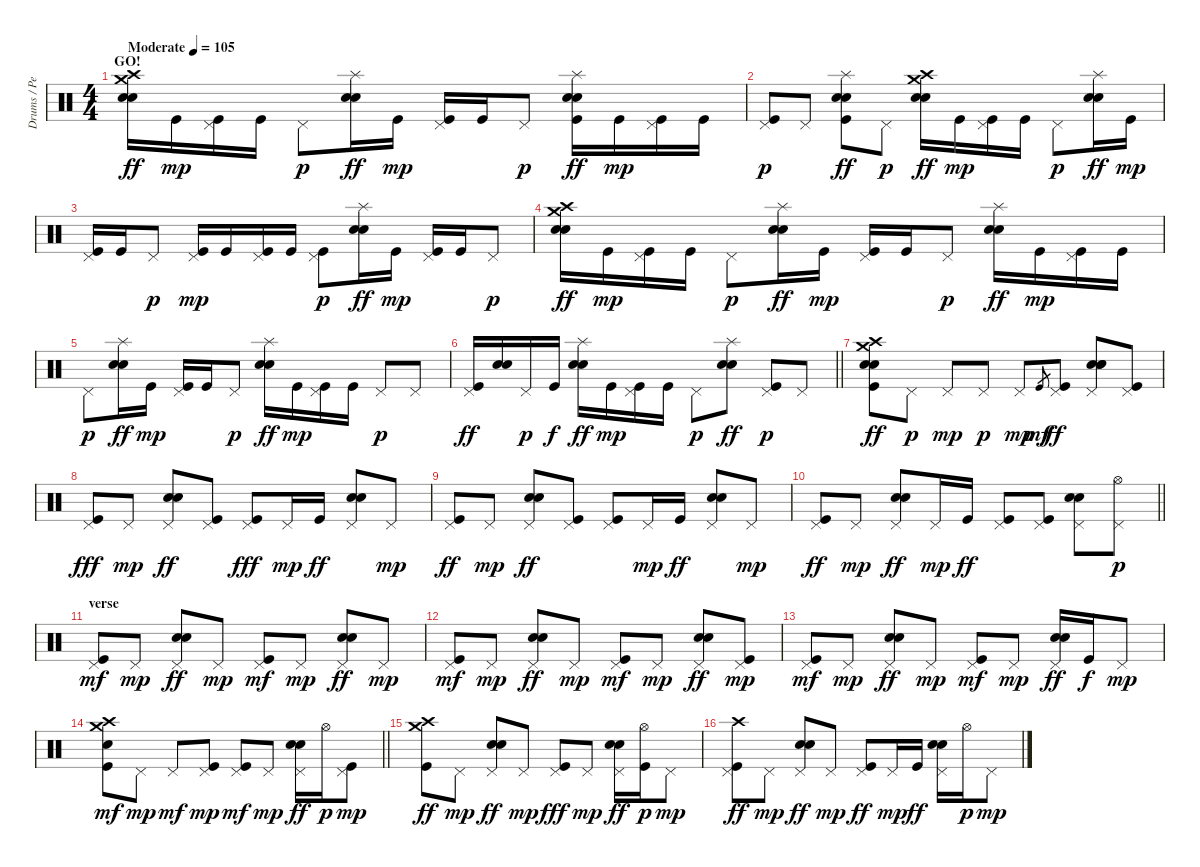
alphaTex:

\track ("Drums / Percussion" "Drums / Pe") {instrument percussion}
\staff {score}
\articulation defaults
\ts (4 4)
\section ("" "GO!")
\tempo (105 "Moderate")
\clef neutral
\ks c
("Crash high (hit)" "Crash medium (hit)" "Electric Snare (hit)" "Snare (hit) 2").16{dy ff} "Kick (hit)".16{dy mp} ("Pedal Hi-Hat (hit)" "Kick (hit)").16 "Kick (hit)".16 "Pedal Hi-Hat (hit)".8{dy p} ("Splash (hit)" "Electric Snare (hit)" "Snare (hit) 2").16{dy ff} "Kick (hit)".16{dy mp} ("Pedal Hi-Hat (hit)" "Kick (hit)").16 "Kick (hit)".16 "Pedal Hi-Hat (hit)".8{dy p} ("Splash (hit)" "Electric Snare (hit)" "Snare (hit) 2" "Kick (hit)").16{dy ff} "Kick (hit)".16{dy mp} ("Pedal Hi-Hat (hit)" "Kick (hit)").16 "Kick (hit)".16 |
("Pedal Hi-Hat (hit)" "Kick (hit)").8{dy p} "Pedal Hi-Hat (hit)".8 ("Splash (hit)" "Electric Snare (hit)" "Snare (hit) 2" "Kick (hit)").8{dy ff} "Pedal Hi-Hat (hit)".8{dy p} ("Crash medium (hit)" "Crash high (hit)" "Electric Snare (hit)" "Snare (hit) 2").16{dy ff} "Kick (hit)".16{dy mp} ("Pedal Hi-Hat (hit)" "Kick (hit)").16 "Kick (hit)".16 "Pedal Hi-Hat (hit)".8{dy p} ("Splash (hit)" "Electric Snare (hit)" "Snare (hit) 2").16{dy ff} "Kick (hit)".16{dy mp} |
("Pedal Hi-Hat (hit)" "Kick (hit)").16 "Kick (hit)".16 "Pedal Hi-Hat (hit)".8{dy p} ("Pedal Hi-Hat (hit)" "Kick (hit)").16{dy mp} "Kick (hit)".16 ("Pedal Hi-Hat (hit)" "Kick (hit)").16 "Kick (hit)".16 ("Pedal Hi-Hat (hit)" "Kick (hit)").8{dy p} ("Splash (hit)" "Electric Snare (hit)" "Snare (hit) 2").16{dy ff} "Kick (hit)".16{dy mp} ("Pedal Hi-Hat (hit)" "Kick (hit)").16 "Kick (hit)".16 "Pedal Hi-Hat (hit)".8{dy p} |
("Crash high (hit)" "Crash medium (hit)" "Electric Snare (hit)" "Snare (hit) 2").16{dy ff} "Kick (hit)".16{dy mp} ("Pedal Hi-Hat (hit)" "Kick (hit)").16 "Kick (hit)".16 "Pedal Hi-Hat (hit)".8{dy p} ("Splash (hit)" "Electric Snare (hit)" "Snare (hit) 2").16{dy ff} "Kick (hit)".16{dy mp} ("Pedal Hi-Hat (hit)" "Kick (hit)").16 "Kick (hit)".16 "Pedal Hi-Hat (hit)".8{dy p} ("Splash (hit)" "Electric Snare (hit)" "Snare (hit) 2").16{dy ff} "Kick (hit)".16{dy mp} ("Pedal Hi-Hat (hit)" "Kick (hit)").16 "Kick (hit)".16 |
"Pedal Hi-Hat (hit)".8{dy p} ("Splash (hit)" "Electric Snare (hit)" "Snare (hit) 2").16{dy ff} "Kick (hit)".16{dy mp} ("Pedal Hi-Hat (hit)" "Kick (hit)").16 "Kick (hit)".16 "Pedal Hi-Hat (hit)".8{dy p} ("Splash (hit)" "Electric Snare (hit)" "Snare (hit) 2").16{dy ff} "Kick (hit)".16{dy mp} ("Pedal Hi-Hat (hit)" "Kick (hit)").16 "Kick (hit)".16 "Pedal Hi-Hat (hit)".8{dy p} "Pedal Hi-Hat (hit)".8 |
\barLineRight lightlight
("Pedal Hi-Hat (hit)" "Kick (hit)").16{dy ff} ("Electric Snare (hit)" "Snare (hit) 2").16 "Pedal Hi-Hat (hit)".16{dy p} "Kick (hit)".16{dy f} ("Splash (hit)" "Electric Snare (hit)" "Snare (hit) 2").16{dy ff} "Kick (hit)".16{dy mp} ("Pedal Hi-Hat (hit)" "Kick (hit)").16 "Kick (hit)".16 "Pedal Hi-Hat (hit)".8{dy p} ("Splash (hit)" "Electric Snare (hit)" "Snare (hit) 2").8{dy ff} ("Pedal Hi-Hat (hit)" "Kick (hit)").8{dy p} "Pedal Hi-Hat (hit)".8 |
\section ("" "")
("Crash high (hit)" "Crash medium (hit)" "Electric Snare (hit)" "Snare (hit) 2" "Kick (hit)").8{dy ff} "Pedal Hi-Hat (hit)".8{dy p} "Pedal Hi-Hat (hit)".8{dy mp} "Pedal Hi-Hat (hit)".8{dy p} "Pedal Hi-Hat (hit)".8{dy mp} "Kick (hit)".8{gr dy mf} ("Pedal Hi-Hat (hit)" "Kick (hit)").8{dy ff} ("Pedal Hi-Hat (hit)" "Electric Snare (hit)" "Snare (hit) 2" "Electric Snare (hit)").8 ("Pedal Hi-Hat (hit)" "Kick (hit)").8 |
("Pedal Hi-Hat (hit)" "Kick (hit)").8{dy fff} "Pedal Hi-Hat (hit)".8{dy mp} ("Pedal Hi-Hat (hit)" "Electric Snare (hit)" "Snare (hit) 2").8{dy ff} ("Pedal Hi-Hat (hit)" "Kick (hit)").8 ("Pedal Hi-Hat (hit)" "Kick (hit)").8{dy fff} "Pedal Hi-Hat (hit)".16{dy mp} "Kick (hit)".16{dy ff} ("Pedal Hi-Hat (hit)" "Electric Snare (hit)" "Snare (hit) 2").8 "Pedal Hi-Hat (hit)".8{dy mp} |
("Pedal Hi-Hat (hit)" "Kick (hit)").8{dy ff} "Pedal Hi-Hat (hit)".8{dy mp} ("Pedal Hi-Hat (hit)" "Electric Snare (hit)" "Snare (hit) 2").8{dy ff} ("Pedal Hi-Hat (hit)" "Kick (hit)").8 ("Pedal Hi-Hat (hit)" "Kick (hit)").8 "Pedal Hi-Hat (hit)".16{dy mp} "Kick (hit)".16{dy ff} ("Pedal Hi-Hat (hit)" "Electric Snare (hit)" "Snare (hit) 2").8 "Pedal Hi-Hat (hit)".8{dy mp} |
\barLineRight lightlight
("Pedal Hi-Hat (hit)" "Kick (hit)").8{dy ff} "Pedal Hi-Hat (hit)".8{dy mp} ("Pedal Hi-Hat (hit)" "Electric Snare (hit)" "Snare (hit) 2").8{dy ff} "Pedal Hi-Hat (hit)".16{dy mp} "Kick (hit)".16{dy ff} ("Pedal Hi-Hat (hit)" "Kick (hit)").8 ("Pedal Hi-Hat (hit)" "Kick (hit)").8 ("Pedal Hi-Hat (hit)" "Electric Snare (hit)" "Snare (hit) 2").8 ("Pedal Hi-Hat (hit)" "Hi-Hat (open)").8{dy p} |
\section ("" "verse")
("Pedal Hi-Hat (hit)" "Kick (hit)").8{dy mf} "Pedal Hi-Hat (hit)".8{dy mp} ("Pedal Hi-Hat (hit)" "Electric Snare (hit)" "Snare (hit) 2").8{dy ff} "Pedal Hi-Hat (hit)".8{dy mp} ("Pedal Hi-Hat (hit)" "Kick (hit)").8{dy mf} "Pedal Hi-Hat (hit)".8{dy mp} ("Pedal Hi-Hat (hit)" "Electric Snare (hit)" "Snare (hit) 2").8{dy ff} "Pedal Hi-Hat (hit)".8{dy mp} |
("Pedal Hi-Hat (hit)" "Kick (hit)").8{dy mf} "Pedal Hi-Hat (hit)".8{dy mp} ("Pedal Hi-Hat (hit)" "Electric Snare (hit)" "Snare (hit) 2").8{dy ff} "Pedal Hi-Hat (hit)".8{dy mp} ("Pedal Hi-Hat (hit)" "Kick (hit)").8{dy mf} "Pedal Hi-Hat (hit)".8{dy mp} ("Pedal Hi-Hat (hit)" "Electric Snare (hit)" "Snare (hit) 2").8{dy ff} ("Pedal Hi-Hat (hit)" "Kick (hit)").8{dy mp} |
("Pedal Hi-Hat (hit)" "Kick (hit)").8{dy mf} "Pedal Hi-Hat (hit)".8{dy mp} ("Pedal Hi-Hat (hit)" "Electric Snare (hit)" "Snare (hit) 2").8{dy ff} "Pedal Hi-Hat (hit)".8{dy mp} ("Pedal Hi-Hat (hit)" "Kick (hit)").8{dy mf} "Pedal Hi-Hat (hit)".8{dy mp} ("Pedal Hi-Hat (hit)" "Electric Snare (hit)" "Snare (hit) 2").16{dy ff} "Kick (hit)".16{dy f} "Pedal Hi-Hat (hit)".8{dy mp} |
\barLineRight lightlight
("Crash medium (hit)" "Crash high (hit)" "Electric Snare (hit)" "Kick (hit)").8{dy mf} "Pedal Hi-Hat (hit)".8{dy mp} "Pedal Hi-Hat (hit)".8{dy mf} ("Pedal Hi-Hat (hit)" "Kick (hit)").8{dy mp} ("Pedal Hi-Hat (hit)" "Kick (hit)").8{dy mf} "Pedal Hi-Hat (hit)".8{dy mp} ("Pedal Hi-Hat (hit)" "Electric Snare (hit)" "Snare (hit) 2").16{dy ff} "Hi-Hat (open)".16{dy p} ("Pedal Hi-Hat (hit)" "Kick (hit)").8{dy mp} |
\section ("" "")
("Crash high (hit)" "Crash medium (hit)" "Kick (hit)").8{dy ff} "Pedal Hi-Hat (hit)".8{dy mp} ("Pedal Hi-Hat (hit)" "Electric Snare (hit)" "Snare (hit) 2").8{dy ff} "Pedal Hi-Hat (hit)".8{dy mp} ("Pedal Hi-Hat (hit)" "Kick (hit)").8{dy fff} "Pedal Hi-Hat (hit)".8{dy mp} ("Pedal Hi-Hat (hit)" "Electric Snare (hit)" "Snare (hit) 2").16{dy ff} ("Hi-Hat (open)" "Kick (hit)").16{dy p} "Pedal Hi-Hat (hit)".8{dy mp} |
("Pedal Hi-Hat (hit)" "Crash high (hit)" "Kick (hit)").8{dy ff} "Pedal Hi-Hat (hit)".8{dy mp} ("Pedal Hi-Hat (hit)" "Electric Snare (hit)" "Snare (hit) 2").8{dy ff} "Pedal Hi-Hat (hit)".8{dy mp} ("Pedal Hi-Hat (hit)" "Kick (hit)").8{dy ff} "Pedal Hi-Hat (hit)".16{dy mp} "Kick (hit)".16{dy ff} ("Pedal Hi-Hat (hit)" "Electric Snare (hit)" "Snare (hit) 2").16 "Hi-Hat (open)".16{dy p} "Pedal Hi-Hat (hit)".8{dy mp}
